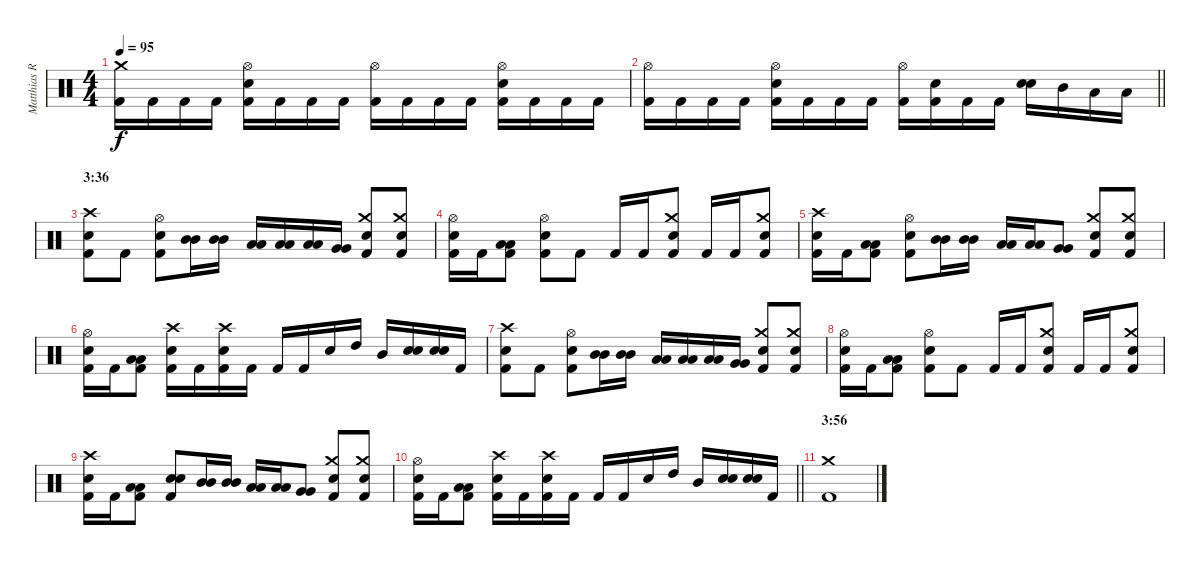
\track ("Matthias R." "Matthias R") {instrument percussion}
\staff {score}
\articulation defaults
\ts (4 4)
\tempo 95
\clef neutral
\ks c
("Kick (hit) 2" "Crash medium (hit)").16{dy f} "Kick (hit) 2".16 "Kick (hit) 2".16 "Kick (hit) 2".16 ("Kick (hit) 2" "Snare (hit) 2" "Hi-Hat (open)").16 "Kick (hit) 2".16 "Kick (hit) 2".16 "Kick (hit) 2".16 ("Kick (hit) 2" "Hi-Hat (open)").16 "Kick (hit) 2".16 "Kick (hit) 2".16 "Kick (hit) 2".16 ("Kick (hit) 2" "Snare (hit) 2" "Hi-Hat (open)").16 "Kick (hit) 2".16 "Kick (hit) 2".16 "Kick (hit) 2".16 |
\barLineRight lightlight
("Kick (hit) 2" "Hi-Hat (open)").16 "Kick (hit) 2".16 "Kick (hit) 2".16 "Kick (hit) 2".16 ("Kick (hit) 2" "Snare (hit) 2" "Hi-Hat (open)").16 "Kick (hit) 2".16 "Kick (hit) 2".16 "Kick (hit) 2".16 ("Kick (hit) 2" "Hi-Hat (open)").16 ("Kick (hit) 2" "Snare (hit) 2").16 "Kick (hit) 2".16 "Kick (hit) 2".16 ("Snare (hit) 2" "Snare (hit) 2").16{bu 120} "Mid Tom (hit)".16 "Low Tom (hit)".16 "Low Tom (hit)".16 |
\section ("" "3:36")
("Kick (hit) 2" "Snare (hit) 2" "Crash high (hit)").8 "Kick (hit) 2".8 ("Kick (hit) 2" "Snare (hit) 2" "Hi-Hat (open)").8 ("Mid Tom (hit)" "Mid Tom (hit)").16 ("Mid Tom (hit)" "Mid Tom (hit)").16 ("Low Tom (hit)" "Low Tom (hit)").16 ("Low Tom (hit)" "Low Tom (hit)").16 ("Low Tom (hit)" "Low Tom (hit)").16 ("Very Low Tom (hit)" "Very Low Tom (hit)").16 ("Kick (hit) 2" "Snare (hit) 2" "Crash medium (hit)").8 ("Kick (hit) 2" "Snare (hit) 2" "Crash medium (hit)").8 |
("Kick (hit) 2" "Snare (hit) 2" "Hi-Hat (open)").16 "Kick (hit) 2".16 ("Kick (hit) 2" "Low Tom (hit)" "Low Tom (hit)").8 ("Kick (hit) 2" "Snare (hit) 2" "Hi-Hat (open)").8 "Kick (hit) 2".8 "Kick (hit) 2".16 "Kick (hit) 2".16 ("Kick (hit) 2" "Snare (hit) 2" "Crash medium (hit)").8 "Kick (hit) 2".16 "Kick (hit) 2".16 ("Kick (hit) 2" "Snare (hit) 2" "Crash medium (hit)").8 |
("Kick (hit) 2" "Snare (hit) 2" "Crash high (hit)").16 "Kick (hit) 2".16 ("Kick (hit) 2" "Low Tom (hit)" "Low Tom (hit)").8 ("Kick (hit) 2" "Snare (hit) 2" "Hi-Hat (open)").8 ("Mid Tom (hit)" "Mid Tom (hit)").16 ("Mid Tom (hit)" "Mid Tom (hit)").16 ("Low Tom (hit)" "Low Tom (hit)").16 ("Low Tom (hit)" "Low Tom (hit)").16 ("Very Low Tom (hit)" "Very Low Tom (hit)").8 ("Kick (hit) 2" "Snare (hit) 2" "Crash medium (hit)").8 ("Kick (hit) 2" "Snare (hit) 2" "Crash medium (hit)").8 |
("Kick (hit) 2" "Snare (hit) 2" "Hi-Hat (open)").16 "Kick (hit) 2".16 ("Kick (hit) 2" "Low Tom (hit)" "Low Tom (hit)").8 ("Kick (hit) 2" "Snare (hit) 2" "Crash high (hit)").16 "Kick (hit) 2".16 ("Kick (hit) 2" "Snare (hit) 2" "Crash high (hit)").16 "Kick (hit) 2".16 "Kick (hit) 2".16 "Kick (hit) 2".16 "Snare (hit) 2".16 "High Tom (hit)".16 "Mid Tom (hit)".16 ("Snare (hit) 2" "Snare (hit) 2").16 ("Snare (hit) 2" "Snare (hit) 2").16 "Kick (hit) 2".16 |
("Kick (hit) 2" "Snare (hit) 2" "Crash high (hit)").8 "Kick (hit) 2".8 ("Kick (hit) 2" "Snare (hit) 2" "Hi-Hat (open)").8 ("Mid Tom (hit)" "Mid Tom (hit)").16 ("Mid Tom (hit)" "Mid Tom (hit)").16 ("Low Tom (hit)" "Low Tom (hit)").16 ("Low Tom (hit)" "Low Tom (hit)").16 ("Low Tom (hit)" "Low Tom (hit)").16 ("Very Low Tom (hit)" "Very Low Tom (hit)").16 ("Kick (hit) 2" "Snare (hit) 2" "Crash medium (hit)").8 ("Kick (hit) 2" "Snare (hit) 2" "Crash medium (hit)").8 |
("Kick (hit) 2" "Snare (hit) 2" "Hi-Hat (open)").16 "Kick (hit) 2".16 ("Kick (hit) 2" "Low Tom (hit)" "Low Tom (hit)").8 ("Kick (hit) 2" "Snare (hit) 2" "Hi-Hat (open)").8 "Kick (hit) 2".8 "Kick (hit) 2".16 "Kick (hit) 2".16 ("Kick (hit) 2" "Snare (hit) 2" "Crash medium (hit)").8 "Kick (hit) 2".16 "Kick (hit) 2".16 ("Kick (hit) 2" "Snare (hit) 2" "Crash medium (hit)").8 |
("Kick (hit) 2" "Snare (hit) 2" "Crash high (hit)").16 "Kick (hit) 2".16 ("Kick (hit) 2" "Low Tom (hit)" "Low Tom (hit)").8 ("Kick (hit) 2" "Snare (hit) 2" "Snare (hit) 2").8 ("Mid Tom (hit)" "Mid Tom (hit)").16 ("Mid Tom (hit)" "Mid Tom (hit)").16 ("Low Tom (hit)" "Low Tom (hit)").16 ("Low Tom (hit)" "Low Tom (hit)").16 ("Very Low Tom (hit)" "Very Low Tom (hit)").8 ("Kick (hit) 2" "Snare (hit) 2" "Crash medium (hit)").8 ("Kick (hit) 2" "Snare (hit) 2" "Crash medium (hit)").8 |
\barLineRight lightlight
("Kick (hit) 2" "Snare (hit) 2" "Hi-Hat (open)").16 "Kick (hit) 2".16 ("Kick (hit) 2" "Low Tom (hit)" "Low Tom (hit)").8 ("Kick (hit) 2" "Snare (hit) 2" "Crash high (hit)").16 "Kick (hit) 2".16 ("Kick (hit) 2" "Snare (hit) 2" "Crash high (hit)").16 "Kick (hit) 2".16 "Kick (hit) 2".16 "Kick (hit) 2".16 "Snare (hit) 2".16 "High Tom (hit)".16 "Mid Tom (hit)".16 ("Snare (hit) 2" "Snare (hit) 2").16 ("Snare (hit) 2" "Snare (hit) 2").16 "Kick (hit) 2".16 |
\section ("" "3:56")
("Kick (hit) 2" "Crash medium (hit)").1
